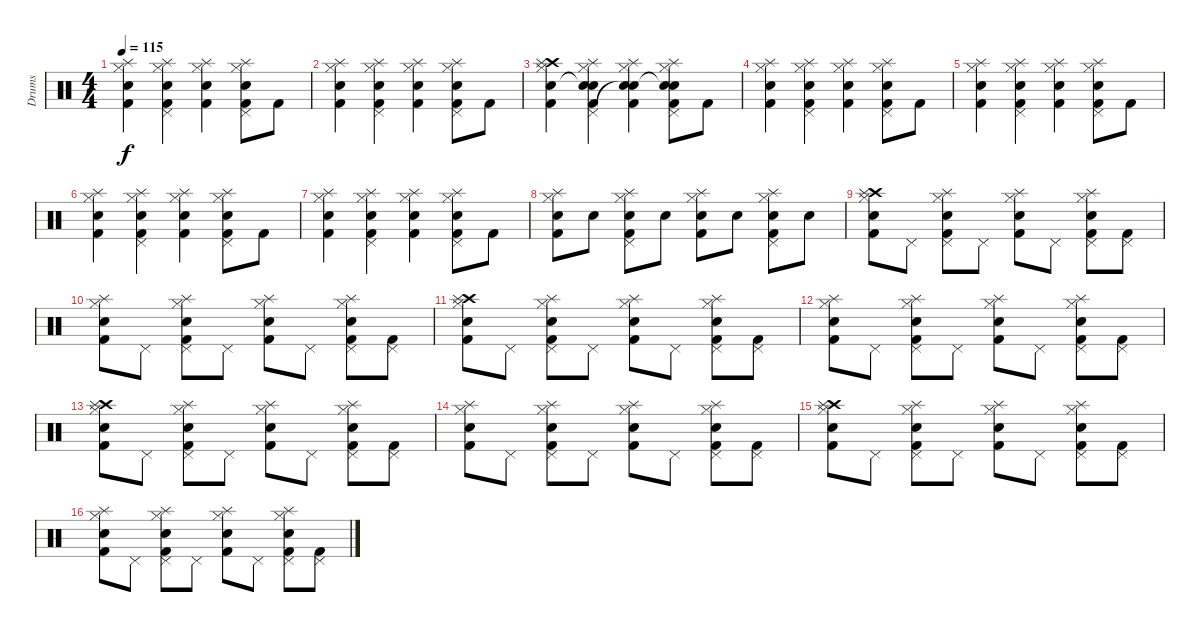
\track ("Drums" "Drums") {instrument percussion}
\staff {score}
\articulation defaults
\ts (4 4)
\tempo 115
\clef neutral
\ks c
("Hi-Hat (closed)" "Snare (hit) 2" "Splash (hit)" "Kick (hit) 2").4{dy f} ("Hi-Hat (closed)" "Pedal Hi-Hat (hit)" "Electric Snare (hit)" "Splash (hit)" "Kick (hit) 2").4 ("Hi-Hat (closed)" "Snare (hit) 2" "Splash (hit)" "Kick (hit) 2").4 ("Hi-Hat (closed)" "Pedal Hi-Hat (hit)" "Electric Snare (hit)" "Splash (hit)" "Kick (hit) 2").8 "Kick (hit) 2".8 |
("Hi-Hat (closed)" "Snare (hit) 2" "Splash (hit)" "Kick (hit) 2").4 ("Hi-Hat (closed)" "Pedal Hi-Hat (hit)" "Electric Snare (hit)" "Splash (hit)" "Kick (hit) 2").4 ("Hi-Hat (closed)" "Snare (hit) 2" "Splash (hit)" "Kick (hit) 2").4 ("Hi-Hat (closed)" "Pedal Hi-Hat (hit)" "Electric Snare (hit)" "Splash (hit)" "Kick (hit) 2").8 "Kick (hit) 2".8 |
("Hi-Hat (closed)" "Crash high (hit)" "Snare (hit) 2" "Splash (hit)" "Kick (hit) 2").4 ("Hi-Hat (closed)" "Pedal Hi-Hat (hit)" "Snare (hit)"{t} "Electric Snare (hit)" "Splash (hit)" "Kick (hit) 2").4 ("Hi-Hat (closed)" "Snare (hit)"{t} "Snare (hit) 2" "Splash (hit)" "Kick (hit) 2").4 ("Hi-Hat (closed)" "Pedal Hi-Hat (hit)" "Snare (hit)"{t} "Electric Snare (hit)" "Splash (hit)" "Kick (hit) 2").8 "Kick (hit) 2".8 |
("Hi-Hat (closed)" "Snare (hit) 2" "Splash (hit)" "Kick (hit) 2").4 ("Hi-Hat (closed)" "Pedal Hi-Hat (hit)" "Electric Snare (hit)" "Splash (hit)" "Kick (hit) 2").4 ("Hi-Hat (closed)" "Snare (hit) 2" "Splash (hit)" "Kick (hit) 2").4 ("Hi-Hat (closed)" "Pedal Hi-Hat (hit)" "Electric Snare (hit)" "Splash (hit)" "Kick (hit) 2").8 "Kick (hit) 2".8 |
("Hi-Hat (closed)" "Snare (hit) 2" "Splash (hit)" "Kick (hit) 2").4 ("Hi-Hat (closed)" "Pedal Hi-Hat (hit)" "Electric Snare (hit)" "Splash (hit)" "Kick (hit) 2").4 ("Hi-Hat (closed)" "Snare (hit) 2" "Splash (hit)" "Kick (hit) 2").4 ("Hi-Hat (closed)" "Pedal Hi-Hat (hit)" "Electric Snare (hit)" "Splash (hit)" "Kick (hit) 2").8 "Kick (hit) 2".8 |
("Hi-Hat (closed)" "Snare (hit) 2" "Splash (hit)" "Kick (hit) 2").4 ("Hi-Hat (closed)" "Pedal Hi-Hat (hit)" "Electric Snare (hit)" "Splash (hit)" "Kick (hit) 2").4 ("Hi-Hat (closed)" "Snare (hit) 2" "Splash (hit)" "Kick (hit) 2").4 ("Hi-Hat (closed)" "Pedal Hi-Hat (hit)" "Electric Snare (hit)" "Splash (hit)" "Kick (hit) 2").8 "Kick (hit) 2".8 |
("Hi-Hat (closed)" "Snare (hit) 2" "Splash (hit)" "Kick (hit) 2").4 ("Hi-Hat (closed)" "Pedal Hi-Hat (hit)" "Electric Snare (hit)" "Splash (hit)" "Kick (hit) 2").4 ("Hi-Hat (closed)" "Snare (hit) 2" "Splash (hit)" "Kick (hit) 2").4 ("Hi-Hat (closed)" "Pedal Hi-Hat (hit)" "Electric Snare (hit)" "Splash (hit)" "Kick (hit) 2").8 "Kick (hit) 2".8 |
("Hi-Hat (closed)" "Snare (hit) 2" "Splash (hit)" "Kick (hit) 2").8 "Snare (hit) 2".8 ("Hi-Hat (closed)" "Pedal Hi-Hat (hit)" "Electric Snare (hit)" "Splash (hit)" "Kick (hit) 2").8 "Snare (hit) 2".8 ("Hi-Hat (closed)" "Snare (hit) 2" "Splash (hit)" "Kick (hit) 2").8 "Snare (hit) 2".8 ("Hi-Hat (closed)" "Pedal Hi-Hat (hit)" "Electric Snare (hit)" "Splash (hit)" "Kick (hit) 2").8 "Electric Snare (hit)".8 |
("Hi-Hat (closed)" "Crash high (hit)" "Snare (hit) 2" "Splash (hit)" "Kick (hit) 2").8 "Pedal Hi-Hat (hit)".8 ("Hi-Hat (closed)" "Pedal Hi-Hat (hit)" "Electric Snare (hit)" "Splash (hit)" "Kick (hit) 2").8 "Pedal Hi-Hat (hit)".8 ("Hi-Hat (closed)" "Snare (hit) 2" "Splash (hit)" "Kick (hit) 2").8 "Pedal Hi-Hat (hit)".8 ("Hi-Hat (closed)" "Pedal Hi-Hat (hit)" "Electric Snare (hit)" "Splash (hit)" "Kick (hit) 2").8 ("Pedal Hi-Hat (hit)" "Kick (hit) 2").8 |
("Hi-Hat (closed)" "Snare (hit) 2" "Splash (hit)" "Kick (hit) 2").8 "Pedal Hi-Hat (hit)".8 ("Hi-Hat (closed)" "Pedal Hi-Hat (hit)" "Electric Snare (hit)" "Splash (hit)" "Kick (hit) 2").8 "Pedal Hi-Hat (hit)".8 ("Hi-Hat (closed)" "Snare (hit) 2" "Splash (hit)" "Kick (hit) 2").8 "Pedal Hi-Hat (hit)".8 ("Hi-Hat (closed)" "Pedal Hi-Hat (hit)" "Electric Snare (hit)" "Splash (hit)" "Kick (hit) 2").8 ("Pedal Hi-Hat (hit)" "Kick (hit) 2").8 |
("Hi-Hat (closed)" "Crash high (hit)" "Snare (hit) 2" "Splash (hit)" "Kick (hit) 2").8 "Pedal Hi-Hat (hit)".8 ("Hi-Hat (closed)" "Pedal Hi-Hat (hit)" "Electric Snare (hit)" "Splash (hit)" "Kick (hit) 2").8 "Pedal Hi-Hat (hit)".8 ("Hi-Hat (closed)" "Snare (hit) 2" "Splash (hit)" "Kick (hit) 2").8 "Pedal Hi-Hat (hit)".8 ("Hi-Hat (closed)" "Pedal Hi-Hat (hit)" "Electric Snare (hit)" "Splash (hit)" "Kick (hit) 2").8 ("Pedal Hi-Hat (hit)" "Kick (hit) 2").8 |
("Hi-Hat (closed)" "Snare (hit) 2" "Splash (hit)" "Kick (hit) 2").8 "Pedal Hi-Hat (hit)".8 ("Hi-Hat (closed)" "Pedal Hi-Hat (hit)" "Electric Snare (hit)" "Splash (hit)" "Kick (hit) 2").8 "Pedal Hi-Hat (hit)".8 ("Hi-Hat (closed)" "Snare (hit) 2" "Splash (hit)" "Kick (hit) 2").8 "Pedal Hi-Hat (hit)".8 ("Hi-Hat (closed)" "Pedal Hi-Hat (hit)" "Electric Snare (hit)" "Splash (hit)" "Kick (hit) 2").8 ("Pedal Hi-Hat (hit)" "Kick (hit) 2").8 |
("Hi-Hat (closed)" "Crash high (hit)" "Snare (hit) 2" "Splash (hit)" "Kick (hit) 2").8 "Pedal Hi-Hat (hit)".8 ("Hi-Hat (closed)" "Pedal Hi-Hat (hit)" "Electric Snare (hit)" "Splash (hit)" "Kick (hit) 2").8 "Pedal Hi-Hat (hit)".8 ("Hi-Hat (closed)" "Snare (hit) 2" "Splash (hit)" "Kick (hit) 2").8 "Pedal Hi-Hat (hit)".8 ("Hi-Hat (closed)" "Pedal Hi-Hat (hit)" "Electric Snare (hit)" "Splash (hit)" "Kick (hit) 2").8 ("Pedal Hi-Hat (hit)" "Kick (hit) 2").8 |
("Hi-Hat (closed)" "Snare (hit) 2" "Splash (hit)" "Kick (hit) 2").8 "Pedal Hi-Hat (hit)".8 ("Hi-Hat (closed)" "Pedal Hi-Hat (hit)" "Electric Snare (hit)" "Splash (hit)" "Kick (hit) 2").8 "Pedal Hi-Hat (hit)".8 ("Hi-Hat (closed)" "Snare (hit) 2" "Splash (hit)" "Kick (hit) 2").8 "Pedal Hi-Hat (hit)".8 ("Hi-Hat (closed)" "Pedal Hi-Hat (hit)" "Electric Snare (hit)" "Splash (hit)" "Kick (hit) 2").8 ("Pedal Hi-Hat (hit)" "Kick (hit) 2").8 |
("Hi-Hat (closed)" "Crash high (hit)" "Snare (hit) 2" "Splash (hit)" "Kick (hit) 2").8 "Pedal Hi-Hat (hit)".8 ("Hi-Hat (closed)" "Pedal Hi-Hat (hit)" "Electric Snare (hit)" "Splash (hit)" "Kick (hit) 2").8 "Pedal Hi-Hat (hit)".8 ("Hi-Hat (closed)" "Snare (hit) 2" "Splash (hit)" "Kick (hit) 2").8 "Pedal Hi-Hat (hit)".8 ("Hi-Hat (closed)" "Pedal Hi-Hat (hit)" "Electric Snare (hit)" "Splash (hit)" "Kick (hit) 2").8 ("Pedal Hi-Hat (hit)" "Kick (hit) 2").8 |
("Hi-Hat (closed)" "Snare (hit) 2" "Splash (hit)" "Kick (hit) 2").8 "Pedal Hi-Hat (hit)".8 ("Hi-Hat (closed)" "Pedal Hi-Hat (hit)" "Electric Snare (hit)" "Splash (hit)" "Kick (hit) 2").8 "Pedal Hi-Hat (hit)".8 ("Hi-Hat (closed)" "Snare (hit) 2" "Splash (hit)" "Kick (hit) 2").8 "Pedal Hi-Hat (hit)".8 ("Hi-Hat (closed)" "Pedal Hi-Hat (hit)" "Electric Snare (hit)" "Splash (hit)" "Kick (hit) 2").8 ("Pedal Hi-Hat (hit)" "Kick (hit) 2").8
